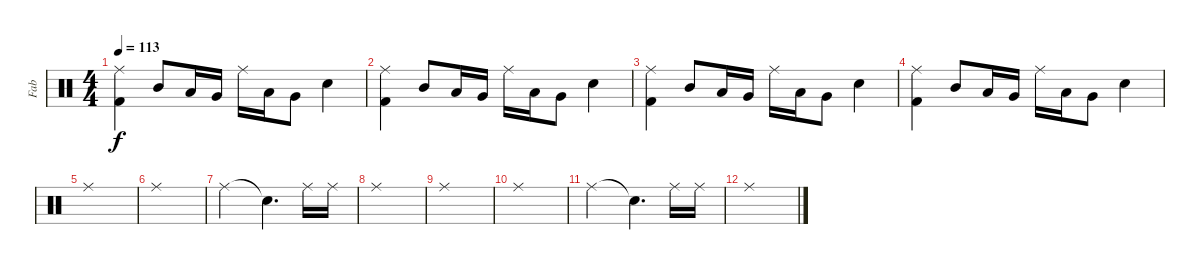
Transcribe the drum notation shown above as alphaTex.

\track ("Fab" "Fab") {instrument percussion}
\staff {score}
\articulation defaults
\ts (4 4)
\tempo 113
\clef neutral
\ks c
("Ride (middle)" "Kick (hit) 2").4{dy f} "Mid Tom (hit)".8 "Low Tom (hit)".16 "Very Low Tom (hit)".16 "Ride (middle)".16 "Low Tom (hit)".16 "Very Low Tom (hit)".8 "Electric Snare (hit)".4 |
("Ride (middle)" "Kick (hit) 2").4 "Mid Tom (hit)".8 "Low Tom (hit)".16 "Very Low Tom (hit)".16 "Ride (middle)".16 "Low Tom (hit)".16 "Very Low Tom (hit)".8 "Electric Snare (hit)".4 |
("Ride (middle)" "Kick (hit) 2").4 "Mid Tom (hit)".8 "Low Tom (hit)".16 "Very Low Tom (hit)".16 "Ride (middle)".16 "Low Tom (hit)".16 "Very Low Tom (hit)".8 "Electric Snare (hit)".4 |
("Ride (middle)" "Kick (hit) 2").4 "Mid Tom (hit)".8 "Low Tom (hit)".16 "Very Low Tom (hit)".16 "Ride (middle)".16 "Low Tom (hit)".16 "Very Low Tom (hit)".8 "Electric Snare (hit)".4 |
"Ride (middle)".1 |
"Ride (middle)".1 |
"Ride (middle)".2 "Snare (hit)"{t}.4{d} "Ride (middle)".16 "Ride (middle)".16 |
"Ride (middle)".1 |
"Ride (middle)".1 |
"Ride (middle)".1 |
"Ride (middle)".2 "Snare (hit)"{t}.4{d} "Ride (middle)".16 "Ride (middle)".16 |
"Ride (middle)".1
